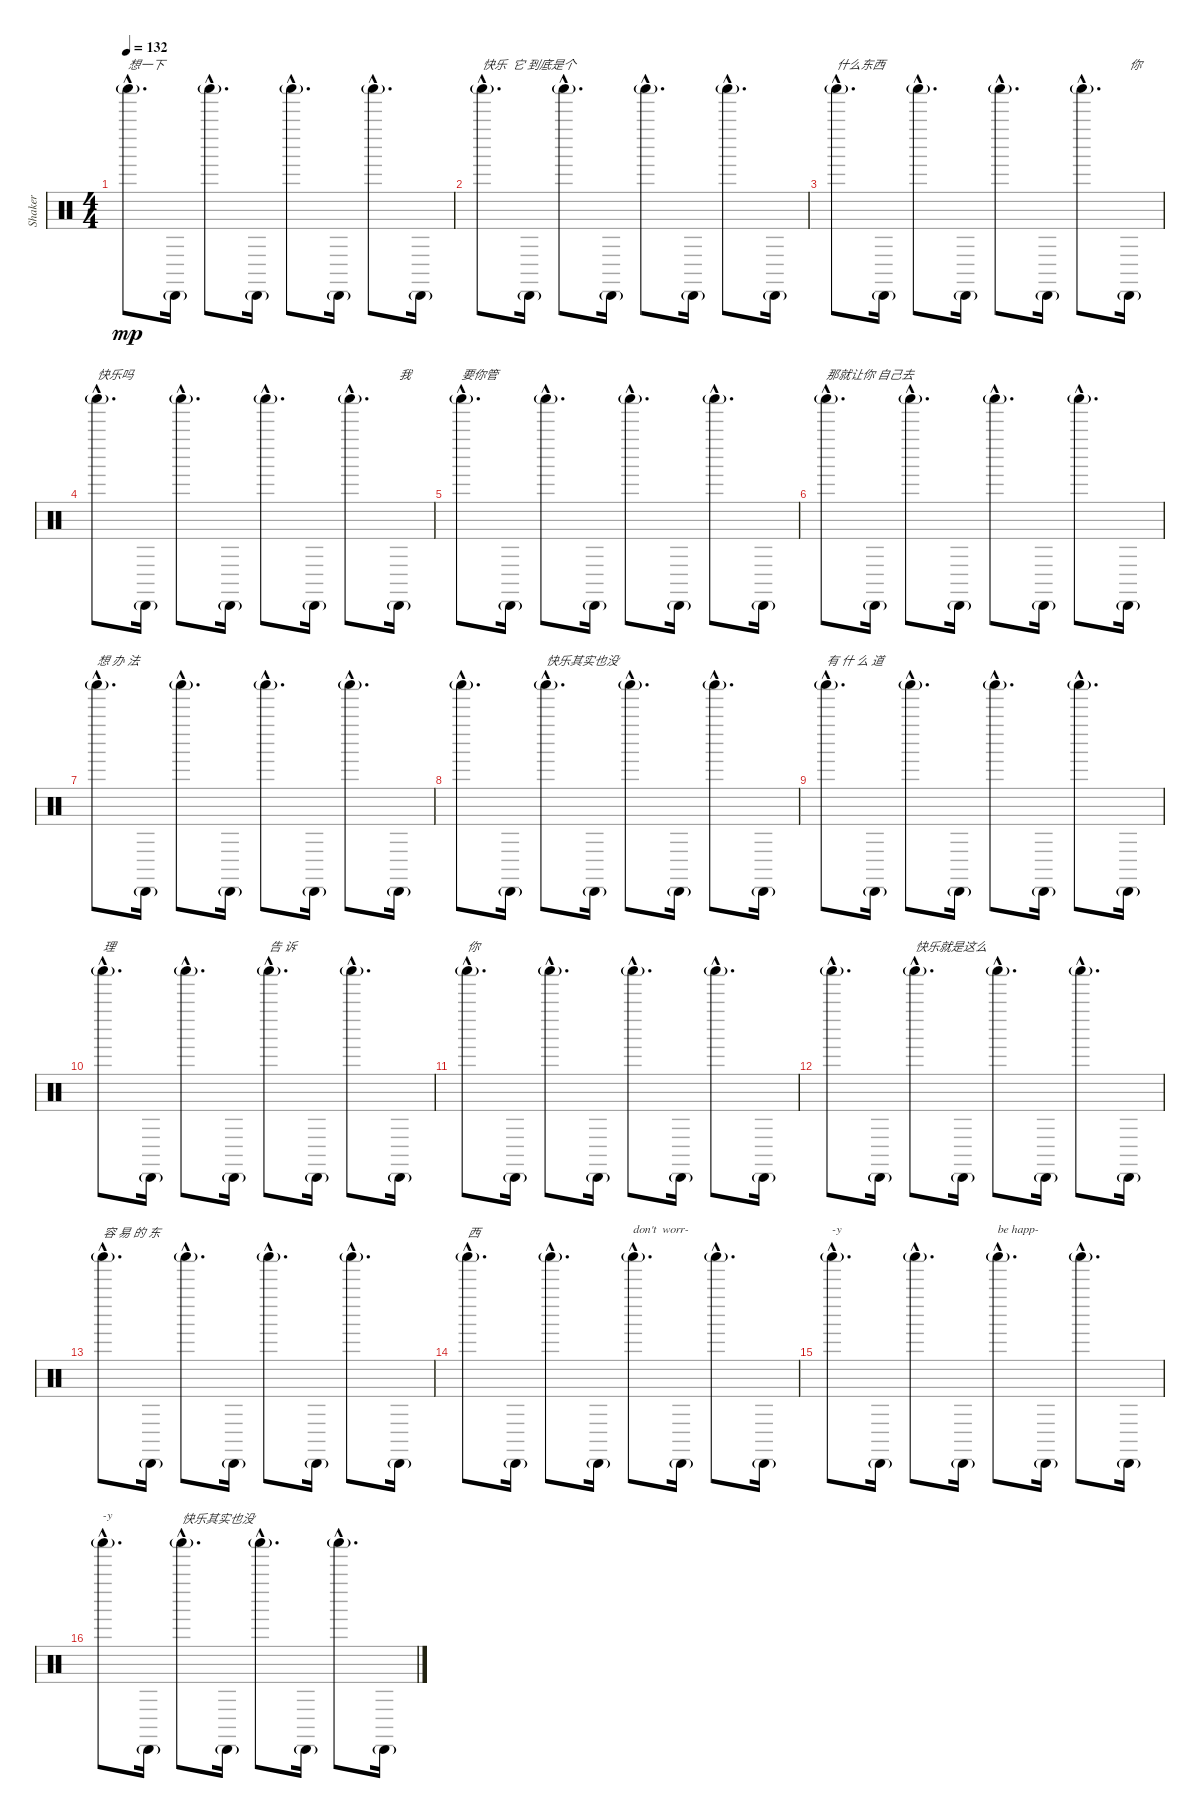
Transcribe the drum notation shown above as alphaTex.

\track ("Shaker" "Shaker") {instrument percussion}
\staff {score}
\articulation defaults
\ts (4 4)
\tempo 132
\clef neutral
\ks c "Shaker (hit)"{g hac}.8{d txt "想一下" dy mp} "Cabasa (hit)"{g}.16 "Shaker (hit)"{g hac}.8{d} "Cabasa (hit)"{g}.16 "Shaker (hit)"{g hac}.8{d} "Cabasa (hit)"{g}.16 "Shaker (hit)"{g hac}.8{d} "Cabasa (hit)"{g}.16
|
"Shaker (hit)"{g hac}.8{d txt "快乐  它 到底是个"} "Cabasa (hit)"{g}.16 "Shaker (hit)"{g hac}.8{d} "Cabasa (hit)"{g}.16 "Shaker (hit)"{g hac}.8{d} "Cabasa (hit)"{g}.16 "Shaker (hit)"{g hac}.8{d} "Cabasa (hit)"{g}.16 |
"Shaker (hit)"{g hac}.8{d txt "什么东西"} "Cabasa (hit)"{g}.16 "Shaker (hit)"{g hac}.8{d} "Cabasa (hit)"{g}.16 "Shaker (hit)"{g hac}.8{d} "Cabasa (hit)"{g}.16 "Shaker (hit)"{g hac}.8{d} "Cabasa (hit)"{g}.16{txt "你"} |
"Shaker (hit)"{g hac}.8{d txt "快乐吗 "} "Cabasa (hit)"{g}.16 "Shaker (hit)"{g hac}.8{d} "Cabasa (hit)"{g}.16 "Shaker (hit)"{g hac}.8{d} "Cabasa (hit)"{g}.16 "Shaker (hit)"{g hac}.8{d} "Cabasa (hit)"{g}.16{txt "我"} |
"Shaker (hit)"{g hac}.8{d txt "要你管"} "Cabasa (hit)"{g}.16 "Shaker (hit)"{g hac}.8{d} "Cabasa (hit)"{g}.16 "Shaker (hit)"{g hac}.8{d} "Cabasa (hit)"{g}.16 "Shaker (hit)"{g hac}.8{d} "Cabasa (hit)"{g}.16 |
"Shaker (hit)"{g hac}.8{d txt "那就让你 自己去"} "Cabasa (hit)"{g}.16 "Shaker (hit)"{g hac}.8{d} "Cabasa (hit)"{g}.16 "Shaker (hit)"{g hac}.8{d} "Cabasa (hit)"{g}.16 "Shaker (hit)"{g hac}.8{d} "Cabasa (hit)"{g}.16 |
"Shaker (hit)"{g hac}.8{d txt "想 办 法"} "Cabasa (hit)"{g}.16 "Shaker (hit)"{g hac}.8{d} "Cabasa (hit)"{g}.16 "Shaker (hit)"{g hac}.8{d} "Cabasa (hit)"{g}.16 "Shaker (hit)"{g hac}.8{d} "Cabasa (hit)"{g}.16 |
"Shaker (hit)"{g hac}.8{d} "Cabasa (hit)"{g}.16 "Shaker (hit)"{g hac}.8{d txt "快乐其实也没"} "Cabasa (hit)"{g}.16 "Shaker (hit)"{g hac}.8{d} "Cabasa (hit)"{g}.16 "Shaker (hit)"{g hac}.8{d} "Cabasa (hit)"{g}.16 |
"Shaker (hit)"{g hac}.8{d txt "有 什 么 道"} "Cabasa (hit)"{g}.16 "Shaker (hit)"{g hac}.8{d} "Cabasa (hit)"{g}.16 "Shaker (hit)"{g hac}.8{d} "Cabasa (hit)"{g}.16 "Shaker (hit)"{g hac}.8{d} "Cabasa (hit)"{g}.16 |
"Shaker (hit)"{g hac}.8{d txt "理"} "Cabasa (hit)"{g}.16 "Shaker (hit)"{g hac}.8{d} "Cabasa (hit)"{g}.16 "Shaker (hit)"{g hac}.8{d txt "告 诉"} "Cabasa (hit)"{g}.16 "Shaker (hit)"{g hac}.8{d} "Cabasa (hit)"{g}.16 |
"Shaker (hit)"{g hac}.8{d txt "你"} "Cabasa (hit)"{g}.16 "Shaker (hit)"{g hac}.8{d} "Cabasa (hit)"{g}.16 "Shaker (hit)"{g hac}.8{d} "Cabasa (hit)"{g}.16 "Shaker (hit)"{g hac}.8{d} "Cabasa (hit)"{g}.16 |
"Shaker (hit)"{g hac}.8{d} "Cabasa (hit)"{g}.16 "Shaker (hit)"{g hac}.8{d txt "快乐就是这么"} "Cabasa (hit)"{g}.16 "Shaker (hit)"{g hac}.8{d} "Cabasa (hit)"{g}.16 "Shaker (hit)"{g hac}.8{d} "Cabasa (hit)"{g}.16 |
"Shaker (hit)"{g hac}.8{d txt "容 易 的 东"} "Cabasa (hit)"{g}.16 "Shaker (hit)"{g hac}.8{d} "Cabasa (hit)"{g}.16 "Shaker (hit)"{g hac}.8{d} "Cabasa (hit)"{g}.16 "Shaker (hit)"{g hac}.8{d} "Cabasa (hit)"{g}.16 |
"Shaker (hit)"{g hac}.8{d txt "西"} "Cabasa (hit)"{g}.16 "Shaker (hit)"{g hac}.8{d} "Cabasa (hit)"{g}.16 "Shaker (hit)"{g hac}.8{d txt "don't  worr-"} "Cabasa (hit)"{g}.16 "Shaker (hit)"{g hac}.8{d} "Cabasa (hit)"{g}.16 |
"Shaker (hit)"{g hac}.8{d txt "-y"} "Cabasa (hit)"{g}.16 "Shaker (hit)"{g hac}.8{d} "Cabasa (hit)"{g}.16 "Shaker (hit)"{g hac}.8{d txt "be happ-"} "Cabasa (hit)"{g}.16 "Shaker (hit)"{g hac}.8{d} "Cabasa (hit)"{g}.16 |
"Shaker (hit)"{g hac}.8{d txt "-y"} "Cabasa (hit)"{g}.16 "Shaker (hit)"{g hac}.8{d txt "快乐其实也没"} "Cabasa (hit)"{g}.16 "Shaker (hit)"{g hac}.8{d} "Cabasa (hit)"{g}.16 "Shaker (hit)"{g hac}.8{d} "Cabasa (hit)"{g}.16
